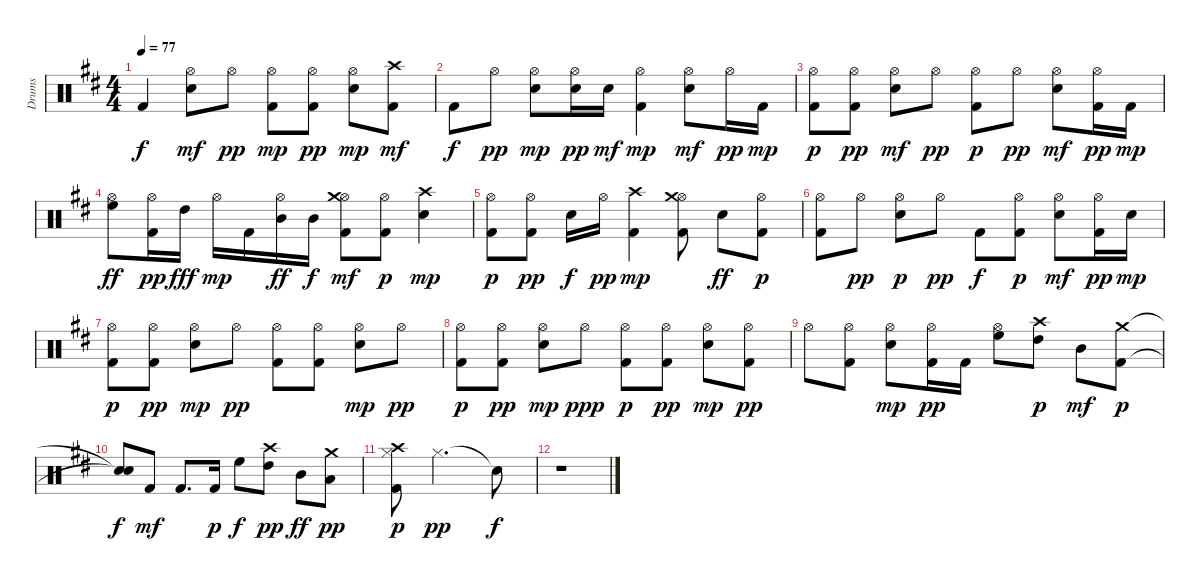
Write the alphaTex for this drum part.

\track ("Drums" "Drums") {instrument percussion}
\staff {score}
\articulation defaults
\ts (4 4)
\tempo 77
\clef neutral
\ks d "Kick (hit) 2".4{dy f}
("Snare (hit) 2" "Hi-Hat (open)").8{dy mf} "Hi-Hat (open)".8{dy pp} ("Kick (hit) 2" "Hi-Hat (open)").8{dy mp} ("Kick (hit) 2" "Hi-Hat (open)").8{dy pp} ("Snare (hit) 2" "Hi-Hat (open)").8{dy mp} ("Kick (hit) 2" "Crash high (hit)").8{dy mf} |
"Kick (hit) 2".8{dy f} "Hi-Hat (open)".8{dy pp} ("Snare (hit) 2" "Hi-Hat (open)").8{dy mp} ("Snare (hit) 2" "Hi-Hat (open)").16{dy pp} "Snare (hit) 2".16{dy mf} ("Kick (hit) 2" "Hi-Hat (open)").4{dy mp} ("Snare (hit) 2" "Hi-Hat (open)").8{dy mf} "Hi-Hat (open)".16{dy pp} "Kick (hit) 2".16{dy mp} |
("Kick (hit) 2" "Hi-Hat (open)").8{dy p} ("Kick (hit) 2" "Hi-Hat (open)").8{dy pp} ("Snare (hit) 2" "Hi-Hat (open)").8{dy mf} "Hi-Hat (open)".8{dy pp} ("Kick (hit) 2" "Hi-Hat (open)").8{dy p} "Hi-Hat (open)".8{dy pp} ("Snare (hit) 2" "Hi-Hat (open)").8{dy mf} ("Kick (hit) 2" "Hi-Hat (open)").16{dy pp} "Kick (hit) 2".16{dy mp} |
("Hi-Hat (open)" "High Floor Tom (hit)").8{dy ff} ("Kick (hit) 2" "Hi-Hat (open)").16{dy pp} "High Tom (hit)".16{dy fff} "Hi-Hat (open)".16{dy mp} "Kick (hit) 2".16 ("Hi-Hat (open)" "Mid Tom (hit)").16{dy ff} "Mid Tom (hit)".16{dy f} ("Kick (hit) 2" "Hi-Hat (open)" "Crash medium (hit)").8{dy mf} ("Kick (hit) 2" "Hi-Hat (open)").8{dy p} ("Snare (hit) 2" "Crash high (hit)").4{dy mp} |
("Kick (hit) 2" "Hi-Hat (open)").8{dy p} ("Kick (hit) 2" "Hi-Hat (open)").8{dy pp} "Snare (hit) 2".16{dy f} "Hi-Hat (open)".16{dy pp} ("Kick (hit) 2" "Crash high (hit)").4{dy mp} ("Kick (hit) 2" "Hi-Hat (open)" "Crash medium (hit)").8 "Snare (hit) 2".8{dy ff} ("Kick (hit) 2" "Hi-Hat (open)").8{dy p} |
("Kick (hit) 2" "Hi-Hat (open)").8 "Hi-Hat (open)".8{dy pp} ("Snare (hit) 2" "Hi-Hat (open)").8{dy p} "Hi-Hat (open)".8{dy pp} "Kick (hit) 2".8{dy f} ("Kick (hit) 2" "Hi-Hat (open)").8{dy p} ("Snare (hit) 2" "Hi-Hat (open)").8{dy mf} ("Kick (hit) 2" "Hi-Hat (open)").16{dy pp} "Snare (hit) 2".16{dy mp} |
("Kick (hit) 2" "Hi-Hat (open)").8{dy p} ("Kick (hit) 2" "Hi-Hat (open)").8{dy pp} ("Snare (hit) 2" "Hi-Hat (open)").8{dy mp} "Hi-Hat (open)".8{dy pp} ("Kick (hit) 2" "Hi-Hat (open)").8 ("Kick (hit) 2" "Hi-Hat (open)").8 ("Snare (hit) 2" "Hi-Hat (open)").8{dy mp} "Hi-Hat (open)".8{dy pp} |
("Kick (hit) 2" "Hi-Hat (open)").8{dy p} ("Kick (hit) 2" "Hi-Hat (open)").8{dy pp} ("Snare (hit) 2" "Hi-Hat (open)").8{dy mp} "Hi-Hat (open)".8{dy ppp} ("Kick (hit) 2" "Hi-Hat (open)").8{dy p} ("Kick (hit) 2" "Hi-Hat (open)").8{dy pp} ("Snare (hit) 2" "Hi-Hat (open)").8{dy mp} ("Kick (hit) 2" "Hi-Hat (open)").8{dy pp} |
"Hi-Hat (open)".8 ("Kick (hit) 2" "Hi-Hat (open)").8 ("Snare (hit) 2" "Hi-Hat (open)").8{dy mp} ("Kick (hit) 2" "Hi-Hat (open)").16{dy pp} "Kick (hit) 2".16 ("Hi-Hat (open)" "High Floor Tom (hit)").8 ("High Tom (hit)" "Crash high (hit)").8{dy p} "Mid Tom (hit)".8{dy mf} ("Kick (hit) 2" "Crash medium (hit)").8{dy p} |
("Snare (hit)"{t} "Snare (hit)"{t}).8{dy f} "Kick (hit) 2".8{dy mf} "Kick (hit) 2".8{d} "Kick (hit) 2".16{dy p} "High Floor Tom (hit)".8{dy f} ("High Tom (hit)" "Crash high (hit)").8{dy pp} "Mid Tom (hit)".8{dy ff} ("Low Tom (hit)" "Crash medium (hit)").8{dy pp} |
("Kick (hit) 2" "Hi-Hat (closed)" "Crash high (hit)").8{dy p} "Hi-Hat (closed)".2{d dy pp} "Snare (hit)"{t}.8{dy f} |
r.1
